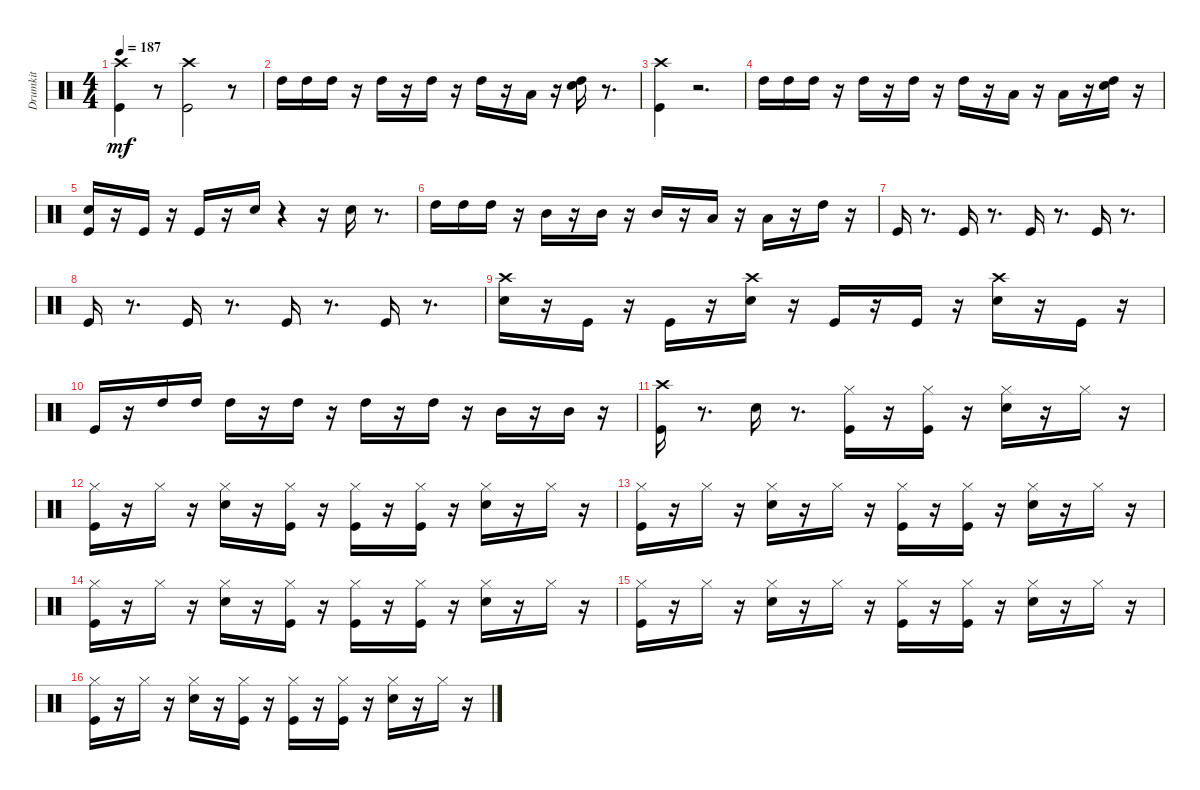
\track ("Drumkit" "Drumkit") {instrument percussion}
\staff {score}
\articulation defaults
\ts (4 4)
\tempo 187
\clef neutral
\ks c
("Crash high (hit)" "Kick (hit)").4{dy mf} r.8 ("Crash high (hit)" "Kick (hit)").2 r.8 |
"High Tom (hit)".16 "High Tom (hit)".16 "High Tom (hit)".16 r.16 "High Tom (hit)".16 r.16 "High Tom (hit)".16 r.16 "High Tom (hit)".16 r.16 "Low Tom (hit)".16 r.16 ("High Tom (hit)" "Snare (hit) 2").16 r.8{d} |
("Crash high (hit)" "Kick (hit)").4 r.2{d} |
"High Tom (hit)".16 "High Tom (hit)".16 "High Tom (hit)".16 r.16 "High Tom (hit)".16 r.16 "High Tom (hit)".16 r.16 "High Tom (hit)".16 r.16 "Low Tom (hit)".16 r.16 "Low Floor Tom (hit)".16 r.16 ("High Tom (hit)" "Snare (hit) 2").16 r.16 |
("Snare (hit) 2" "Kick (hit)").16 r.16 "Kick (hit)".16 r.16 "Kick (hit)".16 r.16 "Snare (hit) 2".16 r.4 r.16 "Snare (hit) 2".16 r.8{d} |
"High Tom (hit)".16 "High Tom (hit)".16 "High Tom (hit)".16 r.16 "Mid Tom (hit)".16 r.16 "Mid Tom (hit)".16 r.16 "Mid Tom (hit)".16 r.16 "Low Tom (hit)".16 r.16 "Low Tom (hit)".16 r.16 "High Tom (hit)".16 r.16 |
"Kick (hit)".16 r.8{d} "Kick (hit)".16 r.8{d} "Kick (hit)".16 r.8{d} "Kick (hit)".16 r.8{d} |
"Kick (hit)".16 r.8{d} "Kick (hit)".16 r.8{d} "Kick (hit)".16 r.8{d} "Kick (hit)".16 r.8{d} |
("Snare (hit) 2" "Crash high (hit)").16 r.16 "Kick (hit)".16 r.16 "Kick (hit)".16 r.16 ("Snare (hit) 2" "Crash high (hit)").16 r.16 "Kick (hit)".16 r.16 "Kick (hit)".16 r.16 ("Snare (hit) 2" "Crash high (hit)").16 r.16 "Kick (hit)".16 r.16 |
"Kick (hit)".16 r.16 "High Tom (hit)".16 "High Tom (hit)".16 "High Tom (hit)".16 r.16 "High Tom (hit)".16 r.16 "High Tom (hit)".16 r.16 "High Tom (hit)".16 r.16 "Mid Tom (hit)".16 r.16 "Mid Tom (hit)".16 r.16 |
("Crash high (hit)" "Kick (hit)").16 r.8{d} "Snare (hit) 2".16 r.8{d} ("Kick (hit)" "Hi-Hat (closed)").16 r.16 ("Kick (hit)" "Hi-Hat (closed)").16 r.16 ("Snare (hit) 2" "Hi-Hat (closed)").16 r.16 "Hi-Hat (closed)".16 r.16 |
("Kick (hit)" "Hi-Hat (closed)").16 r.16 "Hi-Hat (closed)".16 r.16 ("Snare (hit) 2" "Hi-Hat (closed)").16 r.16 ("Kick (hit)" "Hi-Hat (closed)").16 r.16 ("Kick (hit)" "Hi-Hat (closed)").16 r.16 ("Kick (hit)" "Hi-Hat (closed)").16 r.16 ("Snare (hit) 2" "Hi-Hat (closed)").16 r.16 "Hi-Hat (closed)".16 r.16 |
("Kick (hit)" "Hi-Hat (closed)").16 r.16 "Hi-Hat (closed)".16 r.16 ("Snare (hit) 2" "Hi-Hat (closed)").16 r.16 "Hi-Hat (closed)".16 r.16 ("Kick (hit)" "Hi-Hat (closed)").16 r.16 ("Kick (hit)" "Hi-Hat (closed)").16 r.16 ("Snare (hit) 2" "Hi-Hat (closed)").16 r.16 "Hi-Hat (closed)".16 r.16 |
("Kick (hit)" "Hi-Hat (closed)").16 r.16 "Hi-Hat (closed)".16 r.16 ("Snare (hit) 2" "Hi-Hat (closed)").16 r.16 ("Kick (hit)" "Hi-Hat (closed)").16 r.16 ("Kick (hit)" "Hi-Hat (closed)").16 r.16 ("Kick (hit)" "Hi-Hat (closed)").16 r.16 ("Snare (hit) 2" "Hi-Hat (closed)").16 r.16 "Hi-Hat (closed)".16 r.16 |
("Kick (hit)" "Hi-Hat (closed)").16 r.16 "Hi-Hat (closed)".16 r.16 ("Snare (hit) 2" "Hi-Hat (closed)").16 r.16 "Hi-Hat (closed)".16 r.16 ("Kick (hit)" "Hi-Hat (closed)").16 r.16 ("Kick (hit)" "Hi-Hat (closed)").16 r.16 ("Snare (hit) 2" "Hi-Hat (closed)").16 r.16 "Hi-Hat (closed)".16 r.16 |
("Kick (hit)" "Hi-Hat (closed)").16 r.16 "Hi-Hat (closed)".16 r.16 ("Snare (hit) 2" "Hi-Hat (closed)").16 r.16 ("Kick (hit)" "Hi-Hat (closed)").16 r.16 ("Kick (hit)" "Hi-Hat (closed)").16 r.16 ("Kick (hit)" "Hi-Hat (closed)").16 r.16 ("Snare (hit) 2" "Hi-Hat (closed)").16 r.16 "Hi-Hat (closed)".16 r.16
